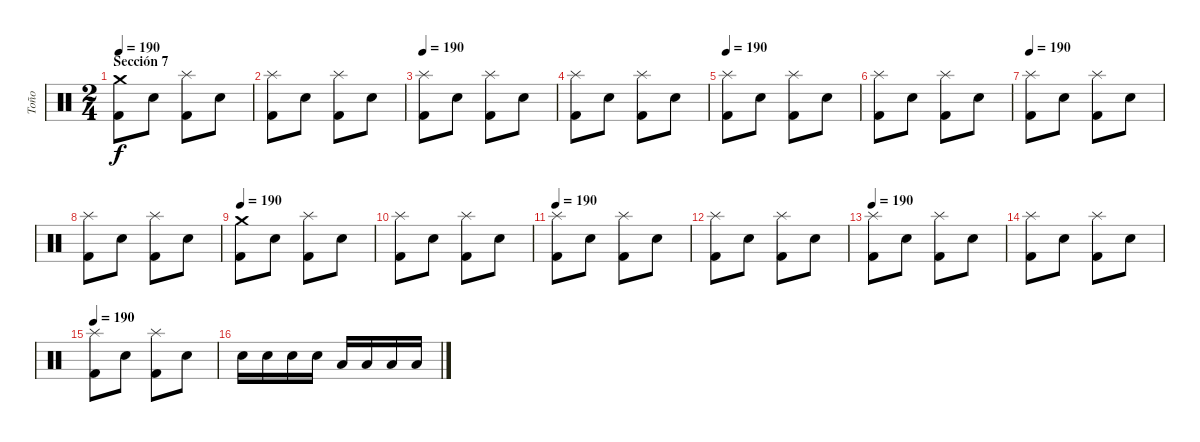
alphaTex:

\track ("Toño" "Toño") {instrument percussion}
\staff {score}
\articulation defaults
\ts (2 4)
\section ("" "Sección 7")
\tempo 190
\clef neutral
\ks c
("Crash medium (hit)" "Kick (hit) 2").8{dy f} "Electric Snare (hit)".8 ("Splash (hit)" "Kick (hit) 2").8 "Electric Snare (hit)".8 |
("Splash (hit)" "Kick (hit) 2").8 "Electric Snare (hit)".8 ("Splash (hit)" "Kick (hit) 2").8 "Electric Snare (hit)".8 |
\tempo 190
("Splash (hit)" "Kick (hit) 2").8 "Electric Snare (hit)".8 ("Splash (hit)" "Kick (hit) 2").8 "Electric Snare (hit)".8 |
("Splash (hit)" "Kick (hit) 2").8 "Electric Snare (hit)".8 ("Splash (hit)" "Kick (hit) 2").8 "Electric Snare (hit)".8 |
\tempo 190
("Splash (hit)" "Kick (hit) 2").8 "Electric Snare (hit)".8 ("Splash (hit)" "Kick (hit) 2").8 "Electric Snare (hit)".8 |
("Splash (hit)" "Kick (hit) 2").8 "Electric Snare (hit)".8 ("Splash (hit)" "Kick (hit) 2").8 "Electric Snare (hit)".8 |
\tempo 190
("Splash (hit)" "Kick (hit) 2").8 "Electric Snare (hit)".8 ("Splash (hit)" "Kick (hit) 2").8 "Electric Snare (hit)".8 |
("Splash (hit)" "Kick (hit) 2").8 "Electric Snare (hit)".8 ("Splash (hit)" "Kick (hit) 2").8 "Electric Snare (hit)".8 |
\tempo 190
("Crash medium (hit)" "Kick (hit) 2").8 "Electric Snare (hit)".8 ("Splash (hit)" "Kick (hit) 2").8 "Electric Snare (hit)".8 |
("Splash (hit)" "Kick (hit) 2").8 "Electric Snare (hit)".8 ("Splash (hit)" "Kick (hit) 2").8 "Electric Snare (hit)".8 |
\tempo 190
("Splash (hit)" "Kick (hit) 2").8 "Electric Snare (hit)".8 ("Splash (hit)" "Kick (hit) 2").8 "Electric Snare (hit)".8 |
("Splash (hit)" "Kick (hit) 2").8 "Electric Snare (hit)".8 ("Splash (hit)" "Kick (hit) 2").8 "Electric Snare (hit)".8 |
\tempo 190
("Splash (hit)" "Kick (hit) 2").8 "Electric Snare (hit)".8 ("Splash (hit)" "Kick (hit) 2").8 "Electric Snare (hit)".8 |
("Splash (hit)" "Kick (hit) 2").8 "Electric Snare (hit)".8 ("Splash (hit)" "Kick (hit) 2").8 "Electric Snare (hit)".8 |
\tempo 190
("Splash (hit)" "Kick (hit) 2").8 "Electric Snare (hit)".8 ("Splash (hit)" "Kick (hit) 2").8 "Electric Snare (hit)".8 |
"Electric Snare (hit)".16 "Electric Snare (hit)".16 "Electric Snare (hit)".16 "Electric Snare (hit)".16 "Low Tom (hit)".16 "Low Tom (hit)".16 "Low Tom (hit)".16 "Low Tom (hit)".16
